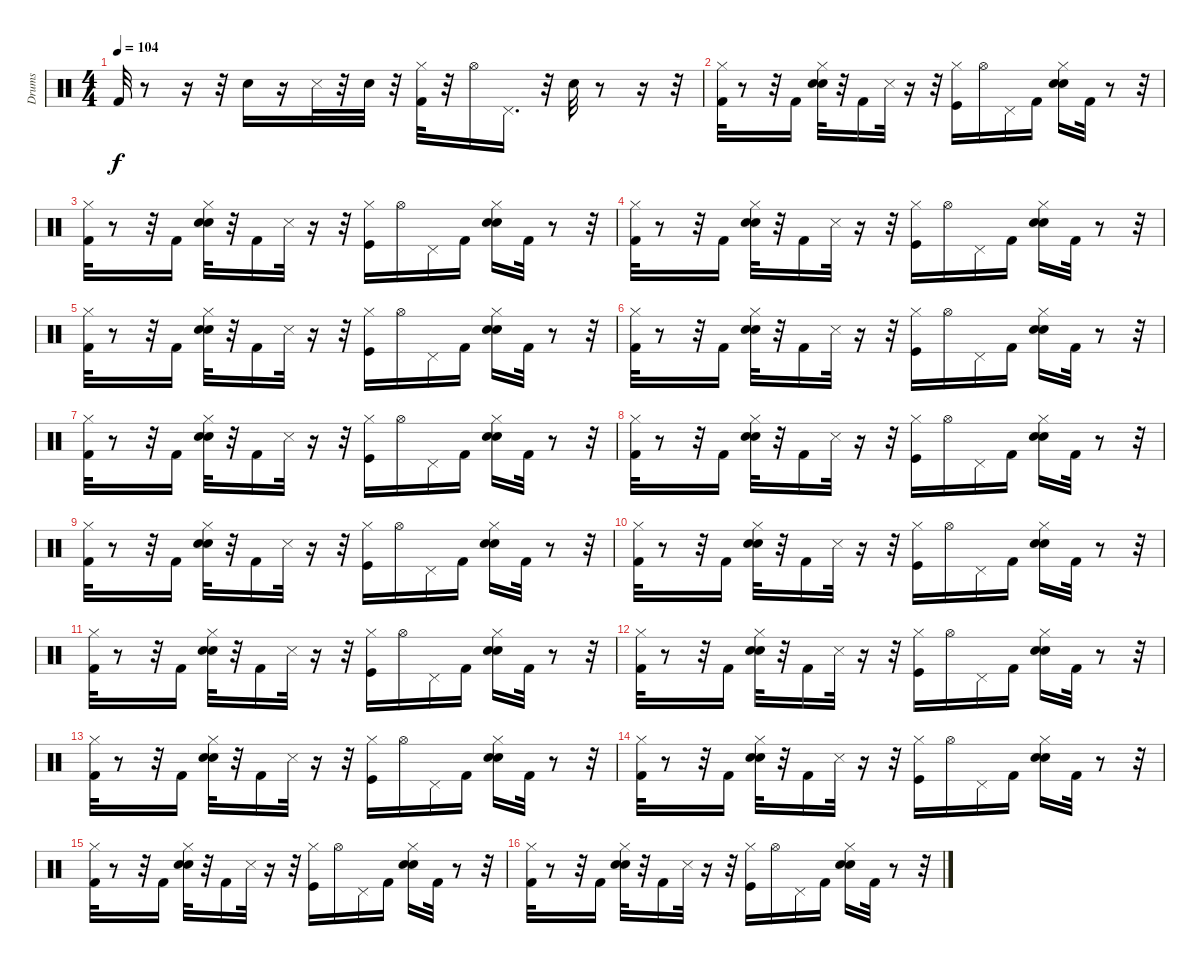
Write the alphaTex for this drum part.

\track ("Drums" "Drums") {instrument percussion}
\staff {score}
\articulation defaults
\ts (4 4)
\tempo 104
\clef neutral
\ks c "Kick (hit) 2".32{dy f}
r.8 r.16 r.32 "Snare (hit) 2".16 r.16 "Snare (side stick) 3".32 r.32 "Electric Snare (hit)".32 r.32 ("Kick (hit) 2" "Hi-Hat (closed)").32 r.32 "Hi-Hat (open)".16 "Pedal Hi-Hat (hit)".16{d} r.32 "Snare (hit) 2".32 r.8 r.16 r.32 |
("Kick (hit) 2" "Hi-Hat (closed)").32 r.8 r.32 "Kick (hit) 2".16 ("Electric Snare (hit)" "Snare (hit) 2" "Hi-Hat (closed)").32 r.32 "Kick (hit) 2".16 "Snare (side stick) 3".32 r.16 r.32 ("Kick (hit)" "Hi-Hat (closed)").16 "Hi-Hat (open)".16 "Pedal Hi-Hat (hit)".16 "Kick (hit) 2".16 ("Electric Snare (hit)" "Snare (hit) 2" "Hi-Hat (closed)").16 "Kick (hit) 2".32 r.8 r.32 |
("Kick (hit) 2" "Hi-Hat (closed)").32 r.8 r.32 "Kick (hit) 2".16 ("Electric Snare (hit)" "Snare (hit) 2" "Hi-Hat (closed)").32 r.32 "Kick (hit) 2".16 "Snare (side stick) 3".32 r.16 r.32 ("Kick (hit)" "Hi-Hat (closed)").16 "Hi-Hat (open)".16 "Pedal Hi-Hat (hit)".16 "Kick (hit) 2".16 ("Electric Snare (hit)" "Snare (hit) 2" "Hi-Hat (closed)").16 "Kick (hit) 2".32 r.8 r.32 |
("Kick (hit) 2" "Hi-Hat (closed)").32 r.8 r.32 "Kick (hit) 2".16 ("Electric Snare (hit)" "Snare (hit) 2" "Hi-Hat (closed)").32 r.32 "Kick (hit) 2".16 "Snare (side stick) 3".32 r.16 r.32 ("Kick (hit)" "Hi-Hat (closed)").16 "Hi-Hat (open)".16 "Pedal Hi-Hat (hit)".16 "Kick (hit) 2".16 ("Electric Snare (hit)" "Snare (hit) 2" "Hi-Hat (closed)").16 "Kick (hit) 2".32 r.8 r.32 |
("Kick (hit) 2" "Hi-Hat (closed)").32 r.8 r.32 "Kick (hit) 2".16 ("Electric Snare (hit)" "Snare (hit) 2" "Hi-Hat (closed)").32 r.32 "Kick (hit) 2".16 "Snare (side stick) 3".32 r.16 r.32 ("Kick (hit)" "Hi-Hat (closed)").16 "Hi-Hat (open)".16 "Pedal Hi-Hat (hit)".16 "Kick (hit) 2".16 ("Electric Snare (hit)" "Snare (hit) 2" "Hi-Hat (closed)").16 "Kick (hit) 2".32 r.8 r.32 |
("Kick (hit) 2" "Hi-Hat (closed)").32 r.8 r.32 "Kick (hit) 2".16 ("Electric Snare (hit)" "Snare (hit) 2" "Hi-Hat (closed)").32 r.32 "Kick (hit) 2".16 "Snare (side stick) 3".32 r.16 r.32 ("Kick (hit)" "Hi-Hat (closed)").16 "Hi-Hat (open)".16 "Pedal Hi-Hat (hit)".16 "Kick (hit) 2".16 ("Electric Snare (hit)" "Snare (hit) 2" "Hi-Hat (closed)").16 "Kick (hit) 2".32 r.8 r.32 |
("Kick (hit) 2" "Hi-Hat (closed)").32 r.8 r.32 "Kick (hit) 2".16 ("Electric Snare (hit)" "Snare (hit) 2" "Hi-Hat (closed)").32 r.32 "Kick (hit) 2".16 "Snare (side stick) 3".32 r.16 r.32 ("Kick (hit)" "Hi-Hat (closed)").16 "Hi-Hat (open)".16 "Pedal Hi-Hat (hit)".16 "Kick (hit) 2".16 ("Electric Snare (hit)" "Snare (hit) 2" "Hi-Hat (closed)").16 "Kick (hit) 2".32 r.8 r.32 |
("Kick (hit) 2" "Hi-Hat (closed)").32 r.8 r.32 "Kick (hit) 2".16 ("Electric Snare (hit)" "Snare (hit) 2" "Hi-Hat (closed)").32 r.32 "Kick (hit) 2".16 "Snare (side stick) 3".32 r.16 r.32 ("Kick (hit)" "Hi-Hat (closed)").16 "Hi-Hat (open)".16 "Pedal Hi-Hat (hit)".16 "Kick (hit) 2".16 ("Electric Snare (hit)" "Snare (hit) 2" "Hi-Hat (closed)").16 "Kick (hit) 2".32 r.8 r.32 |
("Kick (hit) 2" "Hi-Hat (closed)").32 r.8 r.32 "Kick (hit) 2".16 ("Electric Snare (hit)" "Snare (hit) 2" "Hi-Hat (closed)").32 r.32 "Kick (hit) 2".16 "Snare (side stick) 3".32 r.16 r.32 ("Kick (hit)" "Hi-Hat (closed)").16 "Hi-Hat (open)".16 "Pedal Hi-Hat (hit)".16 "Kick (hit) 2".16 ("Electric Snare (hit)" "Snare (hit) 2" "Hi-Hat (closed)").16 "Kick (hit) 2".32 r.8 r.32 |
("Kick (hit) 2" "Hi-Hat (closed)").32 r.8 r.32 "Kick (hit) 2".16 ("Electric Snare (hit)" "Snare (hit) 2" "Hi-Hat (closed)").32 r.32 "Kick (hit) 2".16 "Snare (side stick) 3".32 r.16 r.32 ("Kick (hit)" "Hi-Hat (closed)").16 "Hi-Hat (open)".16 "Pedal Hi-Hat (hit)".16 "Kick (hit) 2".16 ("Electric Snare (hit)" "Snare (hit) 2" "Hi-Hat (closed)").16 "Kick (hit) 2".32 r.8 r.32 |
("Kick (hit) 2" "Hi-Hat (closed)").32 r.8 r.32 "Kick (hit) 2".16 ("Electric Snare (hit)" "Snare (hit) 2" "Hi-Hat (closed)").32 r.32 "Kick (hit) 2".16 "Snare (side stick) 3".32 r.16 r.32 ("Kick (hit)" "Hi-Hat (closed)").16 "Hi-Hat (open)".16 "Pedal Hi-Hat (hit)".16 "Kick (hit) 2".16 ("Electric Snare (hit)" "Snare (hit) 2" "Hi-Hat (closed)").16 "Kick (hit) 2".32 r.8 r.32 |
("Kick (hit) 2" "Hi-Hat (closed)").32 r.8 r.32 "Kick (hit) 2".16 ("Electric Snare (hit)" "Snare (hit) 2" "Hi-Hat (closed)").32 r.32 "Kick (hit) 2".16 "Snare (side stick) 3".32 r.16 r.32 ("Kick (hit)" "Hi-Hat (closed)").16 "Hi-Hat (open)".16 "Pedal Hi-Hat (hit)".16 "Kick (hit) 2".16 ("Electric Snare (hit)" "Snare (hit) 2" "Hi-Hat (closed)").16 "Kick (hit) 2".32 r.8 r.32 |
("Kick (hit) 2" "Hi-Hat (closed)").32 r.8 r.32 "Kick (hit) 2".16 ("Electric Snare (hit)" "Snare (hit) 2" "Hi-Hat (closed)").32 r.32 "Kick (hit) 2".16 "Snare (side stick) 3".32 r.16 r.32 ("Kick (hit)" "Hi-Hat (closed)").16 "Hi-Hat (open)".16 "Pedal Hi-Hat (hit)".16 "Kick (hit) 2".16 ("Electric Snare (hit)" "Snare (hit) 2" "Hi-Hat (closed)").16 "Kick (hit) 2".32 r.8 r.32 |
("Kick (hit) 2" "Hi-Hat (closed)").32 r.8 r.32 "Kick (hit) 2".16 ("Electric Snare (hit)" "Snare (hit) 2" "Hi-Hat (closed)").32 r.32 "Kick (hit) 2".16 "Snare (side stick) 3".32 r.16 r.32 ("Kick (hit)" "Hi-Hat (closed)").16 "Hi-Hat (open)".16 "Pedal Hi-Hat (hit)".16 "Kick (hit) 2".16 ("Electric Snare (hit)" "Snare (hit) 2" "Hi-Hat (closed)").16 "Kick (hit) 2".32 r.8 r.32 |
("Kick (hit) 2" "Hi-Hat (closed)").32 r.8 r.32 "Kick (hit) 2".16 ("Electric Snare (hit)" "Snare (hit) 2" "Hi-Hat (closed)").32 r.32 "Kick (hit) 2".16 "Snare (side stick) 3".32 r.16 r.32 ("Kick (hit)" "Hi-Hat (closed)").16 "Hi-Hat (open)".16 "Pedal Hi-Hat (hit)".16 "Kick (hit) 2".16 ("Electric Snare (hit)" "Snare (hit) 2" "Hi-Hat (closed)").16 "Kick (hit) 2".32 r.8 r.32 |
("Kick (hit) 2" "Hi-Hat (closed)").32 r.8 r.32 "Kick (hit) 2".16 ("Electric Snare (hit)" "Snare (hit) 2" "Hi-Hat (closed)").32 r.32 "Kick (hit) 2".16 "Snare (side stick) 3".32 r.16 r.32 ("Kick (hit)" "Hi-Hat (closed)").16 "Hi-Hat (open)".16 "Pedal Hi-Hat (hit)".16 "Kick (hit) 2".16 ("Electric Snare (hit)" "Snare (hit) 2" "Hi-Hat (closed)").16 "Kick (hit) 2".32 r.8 r.32
